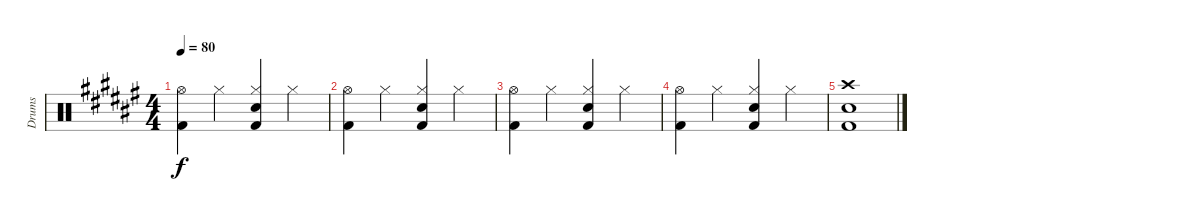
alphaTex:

\track ("Drums" "Drums") {instrument percussion}
\staff {score}
\articulation defaults
\ts (4 4)
\tempo 80
\clef neutral
\ks f#
("Hi-Hat (open)" "Kick (hit) 2").4{dy f} "Hi-Hat (closed)".4 ("Hi-Hat (closed)" "Snare (hit) 2" "Kick (hit) 2").4 "Hi-Hat (closed)".4 |
("Hi-Hat (open)" "Kick (hit) 2").4 "Hi-Hat (closed)".4 ("Hi-Hat (closed)" "Snare (hit) 2" "Kick (hit) 2").4 "Hi-Hat (closed)".4 |
("Hi-Hat (open)" "Kick (hit) 2").4 "Hi-Hat (closed)".4 ("Hi-Hat (closed)" "Snare (hit) 2" "Kick (hit) 2").4 "Hi-Hat (closed)".4 |
("Hi-Hat (open)" "Kick (hit) 2").4{volume 0} "Hi-Hat (closed)".4 ("Hi-Hat (closed)" "Snare (hit) 2" "Kick (hit) 2").4 "Hi-Hat (closed)".4 |
("Crash high (hit)" "Snare (hit) 2" "Kick (hit) 2").1
